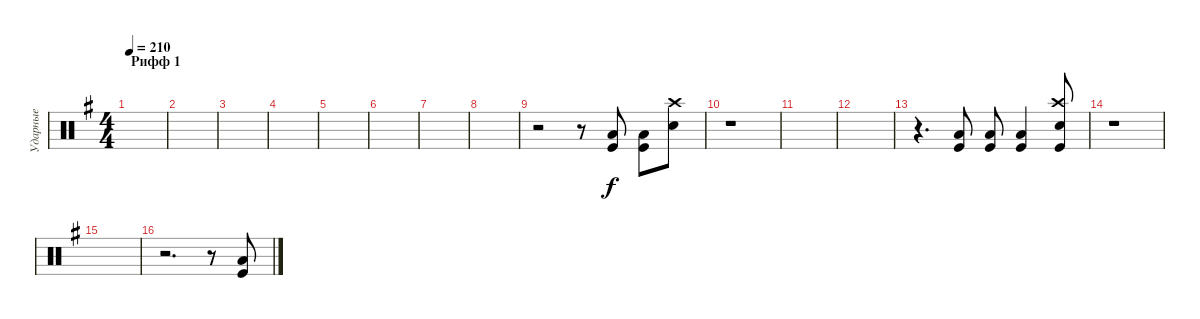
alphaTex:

\track ("Ударные" "Ударные") {instrument percussion}
\staff {score}
\articulation defaults
\ts (4 4)
\section ("" "Рифф 1")
\tempo 210
\clef neutral
\ks g
|
|
|
|
|
|
|
|
r.2 r.8 ("Low Tom (hit)" "Kick (hit)").8 ("Low Tom (hit)" "Kick (hit)").8 ("Crash high (hit)" "Electric Snare (hit)").8 |
r.1 |
|
|
r.4{d} ("Low Tom (hit)" "Kick (hit)").8 ("Low Tom (hit)" "Kick (hit)").8 ("Low Tom (hit)" "Kick (hit)").4 ("Crash high (hit)" "Electric Snare (hit)" "Kick (hit)").8 |
r.1 |
|
r.2{d} r.8 ("Low Tom (hit)" "Kick (hit)").8
